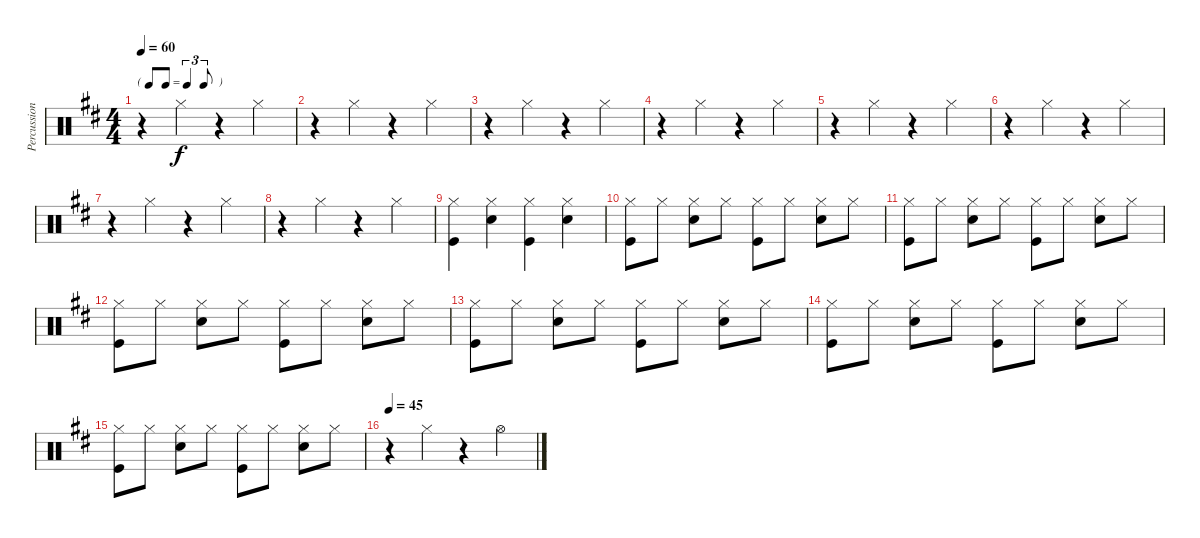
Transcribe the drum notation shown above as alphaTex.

\track ("Percussion" "Percussion") {instrument percussion}
\staff {score}
\articulation defaults
\ts (4 4)
\tf triplet8th
\tempo 60
\clef neutral
\ks d
r.4{dy f} "Hi-Hat (closed)".4 r.4 "Hi-Hat (closed)".4 |
r.4 "Hi-Hat (closed)".4 r.4 "Hi-Hat (closed)".4 |
r.4 "Hi-Hat (closed)".4 r.4 "Hi-Hat (closed)".4 |
r.4 "Hi-Hat (closed)".4 r.4 "Hi-Hat (closed)".4 |
r.4 "Hi-Hat (closed)".4 r.4 "Hi-Hat (closed)".4 |
r.4 "Hi-Hat (closed)".4 r.4 "Hi-Hat (closed)".4 |
r.4 "Hi-Hat (closed)".4 r.4 "Hi-Hat (closed)".4 |
r.4 "Hi-Hat (closed)".4 r.4 "Hi-Hat (closed)".4 |
("Hi-Hat (closed)" "Kick (hit)").4 ("Hi-Hat (closed)" "Snare (hit) 2").4 ("Hi-Hat (closed)" "Kick (hit)").4 ("Hi-Hat (closed)" "Snare (hit) 2").4 |
("Hi-Hat (closed)" "Kick (hit)").8 "Hi-Hat (closed)".8 ("Hi-Hat (closed)" "Snare (hit) 2").8 "Hi-Hat (closed)".8 ("Hi-Hat (closed)" "Kick (hit)").8 "Hi-Hat (closed)".8 ("Hi-Hat (closed)" "Snare (hit) 2").8 "Hi-Hat (closed)".8 |
("Hi-Hat (closed)" "Kick (hit)").8 "Hi-Hat (closed)".8 ("Hi-Hat (closed)" "Snare (hit) 2").8 "Hi-Hat (closed)".8 ("Hi-Hat (closed)" "Kick (hit)").8 "Hi-Hat (closed)".8 ("Hi-Hat (closed)" "Snare (hit) 2").8 "Hi-Hat (closed)".8 |
("Hi-Hat (closed)" "Kick (hit)").8 "Hi-Hat (closed)".8 ("Hi-Hat (closed)" "Snare (hit) 2").8 "Hi-Hat (closed)".8 ("Hi-Hat (closed)" "Kick (hit)").8 "Hi-Hat (closed)".8 ("Hi-Hat (closed)" "Snare (hit) 2").8 "Hi-Hat (closed)".8 |
("Hi-Hat (closed)" "Kick (hit)").8 "Hi-Hat (closed)".8 ("Hi-Hat (closed)" "Snare (hit) 2").8 "Hi-Hat (closed)".8 ("Hi-Hat (closed)" "Kick (hit)").8 "Hi-Hat (closed)".8 ("Hi-Hat (closed)" "Snare (hit) 2").8 "Hi-Hat (closed)".8 |
("Hi-Hat (closed)" "Kick (hit)").8 "Hi-Hat (closed)".8 ("Hi-Hat (closed)" "Snare (hit) 2").8 "Hi-Hat (closed)".8 ("Hi-Hat (closed)" "Kick (hit)").8 "Hi-Hat (closed)".8 ("Hi-Hat (closed)" "Snare (hit) 2").8 "Hi-Hat (closed)".8 |
("Hi-Hat (closed)" "Kick (hit)").8 "Hi-Hat (closed)".8 ("Hi-Hat (closed)" "Snare (hit) 2").8 "Hi-Hat (closed)".8 ("Hi-Hat (closed)" "Kick (hit)").8 "Hi-Hat (closed)".8 ("Hi-Hat (closed)" "Snare (hit) 2").8 "Hi-Hat (closed)".8 |
\tempo 45
r.4 "Hi-Hat (closed)".4 r.4 "Hi-Hat (open)".4
